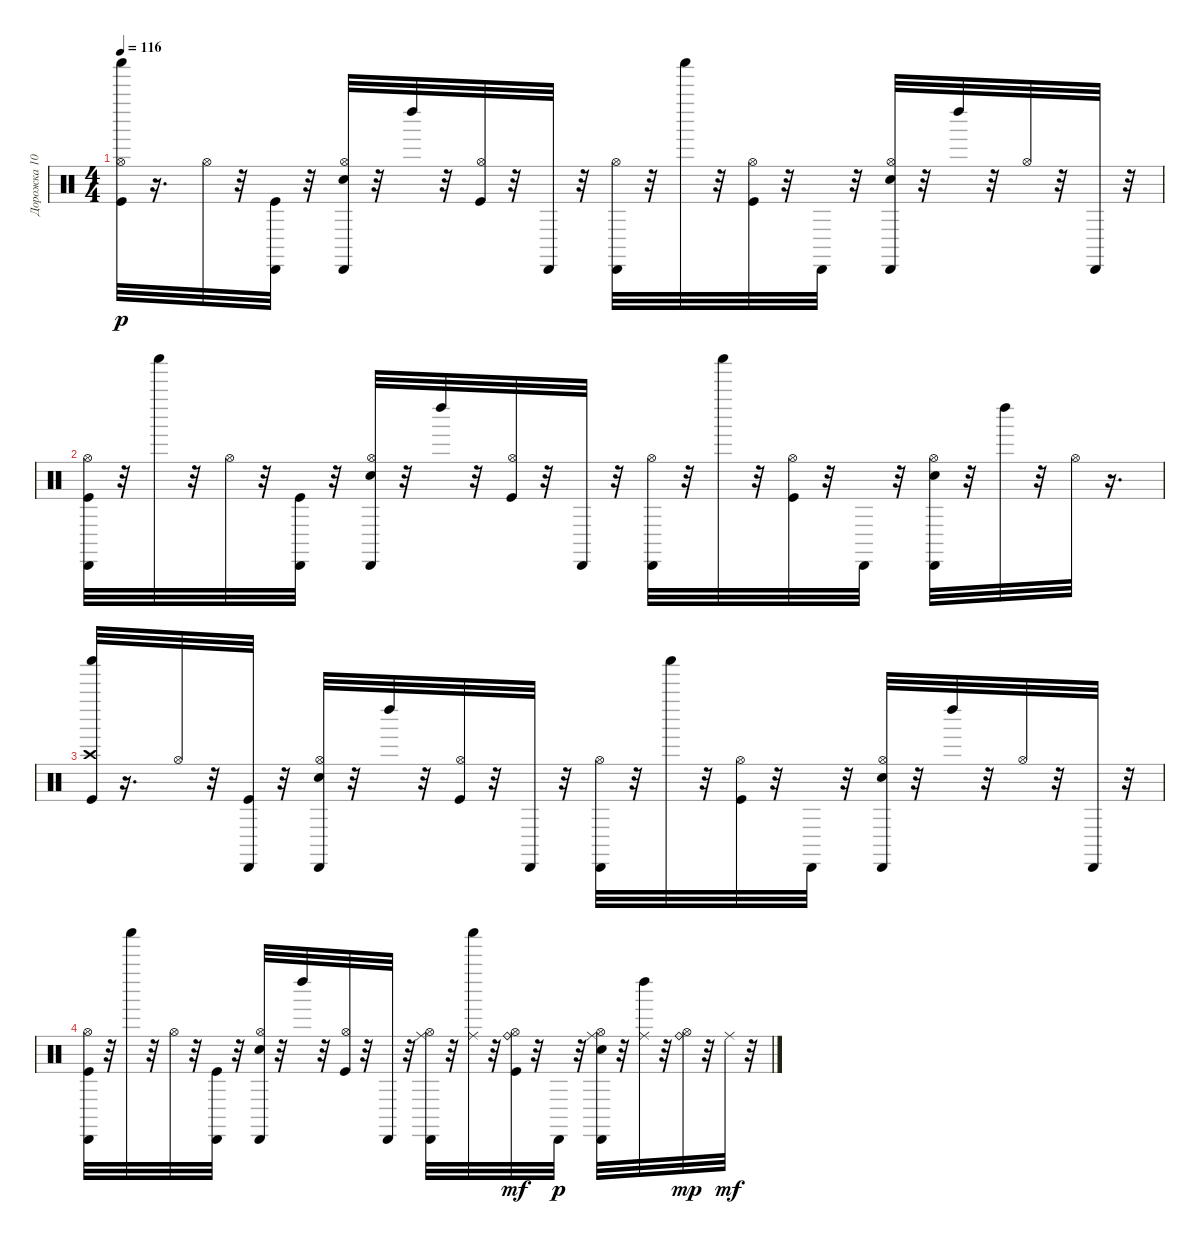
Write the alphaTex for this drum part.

\track ("Дорожка 10" "Дорожка 10") {instrument percussion}
\staff {score}
\articulation defaults
\ts (4 4)
\tempo 116
\clef neutral
\ks c
("Kick (hit)" "Hi-Hat (open)" "Shaker (hit)").32{dy p} r.16{d} "Hi-Hat (open)".32 r.32 ("Kick (hit)" "Cabasa (hit)").32 r.32 ("Electric Snare (hit)" "Hi-Hat (open)" "Cabasa (hit)").32 r.32 "Left Maraca (hit)".32 r.32 ("Kick (hit)" "Hi-Hat (open)").32 r.32 "Cabasa (hit)".32 r.32 ("Hi-Hat (open)" "Cabasa (hit)").32 r.32 "Shaker (hit)".32 r.32 ("Kick (hit)" "Hi-Hat (open)").32 r.32 "Cabasa (hit)".32 r.32 ("Electric Snare (hit)" "Hi-Hat (open)" "Cabasa (hit)").32 r.32 "Left Maraca (hit)".32 r.32 "Hi-Hat (open)".32 r.32 "Cabasa (hit)".32 r.32 |
("Kick (hit)" "Hi-Hat (open)" "Cabasa (hit)").32 r.32 "Shaker (hit)".32 r.32 "Hi-Hat (open)".32 r.32 ("Kick (hit)" "Cabasa (hit)").32 r.32 ("Electric Snare (hit)" "Hi-Hat (open)" "Cabasa (hit)").32 r.32 "Left Maraca (hit)".32 r.32 ("Kick (hit)" "Hi-Hat (open)").32 r.32 "Cabasa (hit)".32 r.32 ("Hi-Hat (open)" "Cabasa (hit)").32 r.32 "Shaker (hit)".32 r.32 ("Hi-Hat (open)" "Kick (hit)").32 r.32 "Cabasa (hit)".32 r.32 ("Electric Snare (hit)" "Hi-Hat (open)" "Cabasa (hit)").32 r.32 "Left Maraca (hit)".32 r.32 "Hi-Hat (open)".32 r.16{d} |
("Kick (hit)" "Crash high (hit)" "Shaker (hit)").32 r.16{d} "Hi-Hat (open)".32 r.32 ("Kick (hit)" "Cabasa (hit)").32 r.32 ("Electric Snare (hit)" "Hi-Hat (open)" "Cabasa (hit)").32 r.32 "Left Maraca (hit)".32 r.32 ("Kick (hit)" "Hi-Hat (open)").32 r.32 "Cabasa (hit)".32 r.32 ("Hi-Hat (open)" "Cabasa (hit)").32 r.32 "Shaker (hit)".32 r.32 ("Kick (hit)" "Hi-Hat (open)").32 r.32 "Cabasa (hit)".32 r.32 ("Electric Snare (hit)" "Hi-Hat (open)" "Cabasa (hit)").32 r.32 "Left Maraca (hit)".32 r.32 "Hi-Hat (open)".32 r.32 "Cabasa (hit)".32 r.32 |
("Kick (hit)" "Hi-Hat (open)" "Cabasa (hit)").32 r.32 "Shaker (hit)".32 r.32 "Hi-Hat (open)".32 r.32 ("Kick (hit)" "Cabasa (hit)").32 r.32 ("Electric Snare (hit)" "Hi-Hat (open)" "Cabasa (hit)").32 r.32 "Left Maraca (hit)".32 r.32 ("Kick (hit)" "Hi-Hat (open)").32 r.32 "Cabasa (hit)".32 r.32 ("Hi-Hat (open)" "Ride (middle)" "Cabasa (hit)").32 r.32 ("Ride (middle)" "Shaker (hit)").32 r.32 ("Hi-Hat (open)" "Kick (hit)" "Ride (bell)").32{dy mf} r.32 "Cabasa (hit)".32{dy p} r.32 ("Electric Snare (hit)" "Hi-Hat (open)" "Ride (middle)" "Cabasa (hit)").32 r.32 ("Ride (middle)" "Left Maraca (hit)").32 r.32 ("Hi-Hat (open)" "Ride (bell)").32{dy mp} r.32 "Ride (middle)".32{dy mf} r.32
